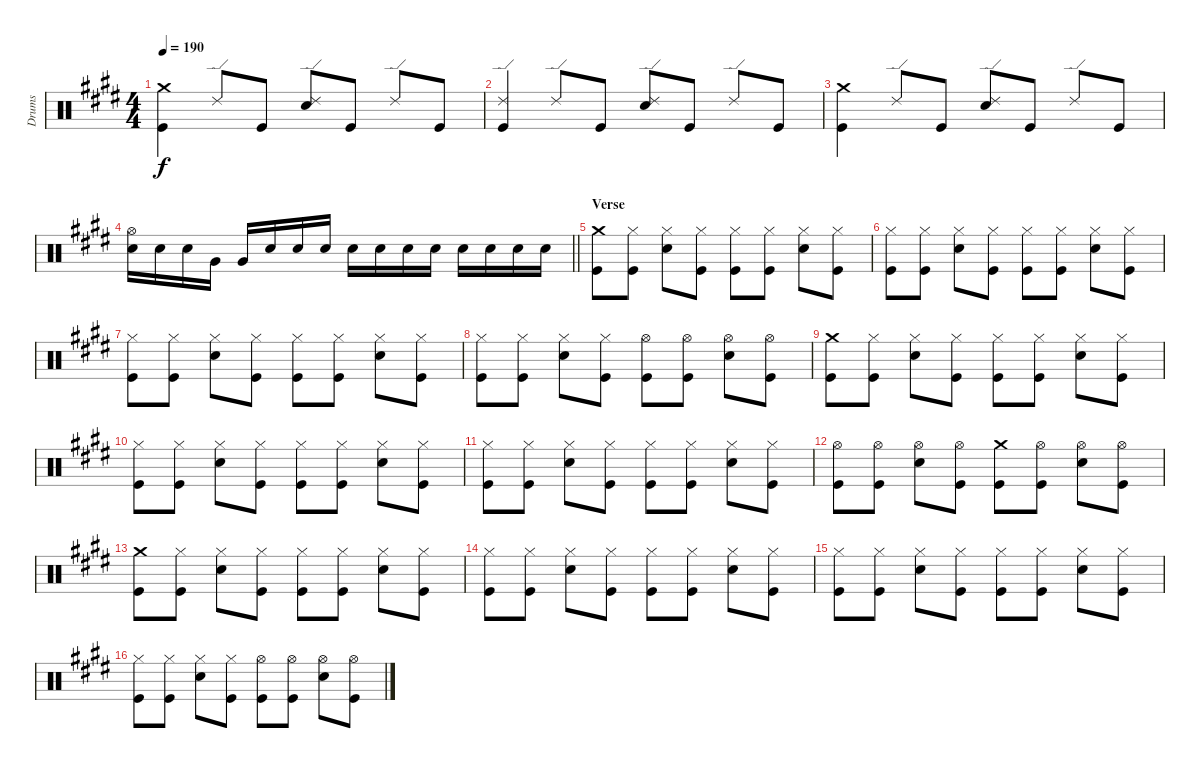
\track ("Drums" "Drums") {instrument percussion}
\staff {score}
\articulation defaults
\ts (4 4)
\tempo 190
\clef neutral
\ks e
("Kick (hit)" "Crash medium (hit)").4{dy f} "Ride (edge) 2".8 "Kick (hit)".8 ("Snare (hit) 2" "Ride (edge) 2").8 "Kick (hit)".8 "Ride (edge) 2".8 "Kick (hit)".8 |
("Kick (hit)" "Ride (edge) 2").4 "Ride (edge) 2".8 "Kick (hit)".8 ("Snare (hit) 2" "Ride (edge) 2").8 "Kick (hit)".8 "Ride (edge) 2".8 "Kick (hit)".8 |
("Kick (hit)" "Crash medium (hit)").4 "Ride (edge) 2".8 "Kick (hit)".8 ("Snare (hit) 2" "Ride (edge) 2").8 "Kick (hit)".8 "Ride (edge) 2".8 "Kick (hit)".8 |
\barLineRight lightlight
("Snare (hit) 2" "Hi-Hat (open)").16 "Snare (hit) 2".16 "Snare (hit) 2".16 "Very Low Tom (hit)".16 "Very Low Tom (hit)".16 "Snare (hit) 2".16 "Snare (hit) 2".16 "Snare (hit) 2".16 "Snare (hit) 2".16 "Snare (hit) 2".16 "Snare (hit) 2".16 "Snare (hit) 2".16 "Snare (hit) 2".16 "Snare (hit) 2".16 "Snare (hit) 2".16 "Snare (hit) 2".16 |
\section ("" "Verse")
("Kick (hit)" "Crash medium (hit)").8 ("Kick (hit)" "Hi-Hat (closed)").8 ("Snare (hit) 2" "Hi-Hat (closed)").8 ("Kick (hit)" "Hi-Hat (closed)").8 ("Kick (hit)" "Hi-Hat (closed)").8 ("Kick (hit)" "Hi-Hat (closed)").8 ("Snare (hit) 2" "Hi-Hat (closed)").8 ("Kick (hit)" "Hi-Hat (closed)").8 |
("Kick (hit)" "Hi-Hat (closed)").8 ("Kick (hit)" "Hi-Hat (closed)").8 ("Snare (hit) 2" "Hi-Hat (closed)").8 ("Kick (hit)" "Hi-Hat (closed)").8 ("Kick (hit)" "Hi-Hat (closed)").8 ("Kick (hit)" "Hi-Hat (closed)").8 ("Snare (hit) 2" "Hi-Hat (closed)").8 ("Kick (hit)" "Hi-Hat (closed)").8 |
("Kick (hit)" "Hi-Hat (closed)").8 ("Kick (hit)" "Hi-Hat (closed)").8 ("Snare (hit) 2" "Hi-Hat (closed)").8 ("Kick (hit)" "Hi-Hat (closed)").8 ("Kick (hit)" "Hi-Hat (closed)").8 ("Kick (hit)" "Hi-Hat (closed)").8 ("Snare (hit) 2" "Hi-Hat (closed)").8 ("Kick (hit)" "Hi-Hat (closed)").8 |
("Kick (hit)" "Hi-Hat (closed)").8 ("Kick (hit)" "Hi-Hat (closed)").8 ("Snare (hit) 2" "Hi-Hat (closed)").8 ("Kick (hit)" "Hi-Hat (closed)").8 ("Kick (hit)" "Hi-Hat (open)").8 ("Kick (hit)" "Hi-Hat (open)").8 ("Snare (hit) 2" "Hi-Hat (open)").8 ("Kick (hit)" "Hi-Hat (open)").8 |
("Kick (hit)" "Crash medium (hit)").8 ("Kick (hit)" "Hi-Hat (closed)").8 ("Snare (hit) 2" "Hi-Hat (closed)").8 ("Kick (hit)" "Hi-Hat (closed)").8 ("Kick (hit)" "Hi-Hat (closed)").8 ("Kick (hit)" "Hi-Hat (closed)").8 ("Snare (hit) 2" "Hi-Hat (closed)").8 ("Kick (hit)" "Hi-Hat (closed)").8 |
("Kick (hit)" "Hi-Hat (closed)").8 ("Kick (hit)" "Hi-Hat (closed)").8 ("Snare (hit) 2" "Hi-Hat (closed)").8 ("Kick (hit)" "Hi-Hat (closed)").8 ("Kick (hit)" "Hi-Hat (closed)").8 ("Kick (hit)" "Hi-Hat (closed)").8 ("Snare (hit) 2" "Hi-Hat (closed)").8 ("Kick (hit)" "Hi-Hat (closed)").8 |
("Kick (hit)" "Hi-Hat (closed)").8 ("Kick (hit)" "Hi-Hat (closed)").8 ("Snare (hit) 2" "Hi-Hat (closed)").8 ("Kick (hit)" "Hi-Hat (closed)").8 ("Kick (hit)" "Hi-Hat (closed)").8 ("Kick (hit)" "Hi-Hat (closed)").8 ("Snare (hit) 2" "Hi-Hat (closed)").8 ("Kick (hit)" "Hi-Hat (closed)").8 |
("Kick (hit)" "Hi-Hat (open)").8 ("Kick (hit)" "Hi-Hat (open)").8 ("Snare (hit) 2" "Hi-Hat (open)").8 ("Kick (hit)" "Hi-Hat (open)").8 ("Kick (hit)" "Crash medium (hit)").8 ("Kick (hit)" "Hi-Hat (open)").8 ("Snare (hit) 2" "Hi-Hat (open)").8 ("Kick (hit)" "Hi-Hat (open)").8 |
("Kick (hit)" "Crash medium (hit)").8 ("Kick (hit)" "Hi-Hat (closed)").8 ("Snare (hit) 2" "Hi-Hat (closed)").8 ("Kick (hit)" "Hi-Hat (closed)").8 ("Kick (hit)" "Hi-Hat (closed)").8 ("Kick (hit)" "Hi-Hat (closed)").8 ("Snare (hit) 2" "Hi-Hat (closed)").8 ("Kick (hit)" "Hi-Hat (closed)").8 |
("Kick (hit)" "Hi-Hat (closed)").8 ("Kick (hit)" "Hi-Hat (closed)").8 ("Snare (hit) 2" "Hi-Hat (closed)").8 ("Kick (hit)" "Hi-Hat (closed)").8 ("Kick (hit)" "Hi-Hat (closed)").8 ("Kick (hit)" "Hi-Hat (closed)").8 ("Snare (hit) 2" "Hi-Hat (closed)").8 ("Kick (hit)" "Hi-Hat (closed)").8 |
("Kick (hit)" "Hi-Hat (closed)").8 ("Kick (hit)" "Hi-Hat (closed)").8 ("Snare (hit) 2" "Hi-Hat (closed)").8 ("Kick (hit)" "Hi-Hat (closed)").8 ("Kick (hit)" "Hi-Hat (closed)").8 ("Kick (hit)" "Hi-Hat (closed)").8 ("Snare (hit) 2" "Hi-Hat (closed)").8 ("Kick (hit)" "Hi-Hat (closed)").8 |
("Kick (hit)" "Hi-Hat (closed)").8 ("Kick (hit)" "Hi-Hat (closed)").8 ("Snare (hit) 2" "Hi-Hat (closed)").8 ("Kick (hit)" "Hi-Hat (closed)").8 ("Kick (hit)" "Hi-Hat (open)").8 ("Kick (hit)" "Hi-Hat (open)").8 ("Snare (hit) 2" "Hi-Hat (open)").8 ("Kick (hit)" "Hi-Hat (open)").8
